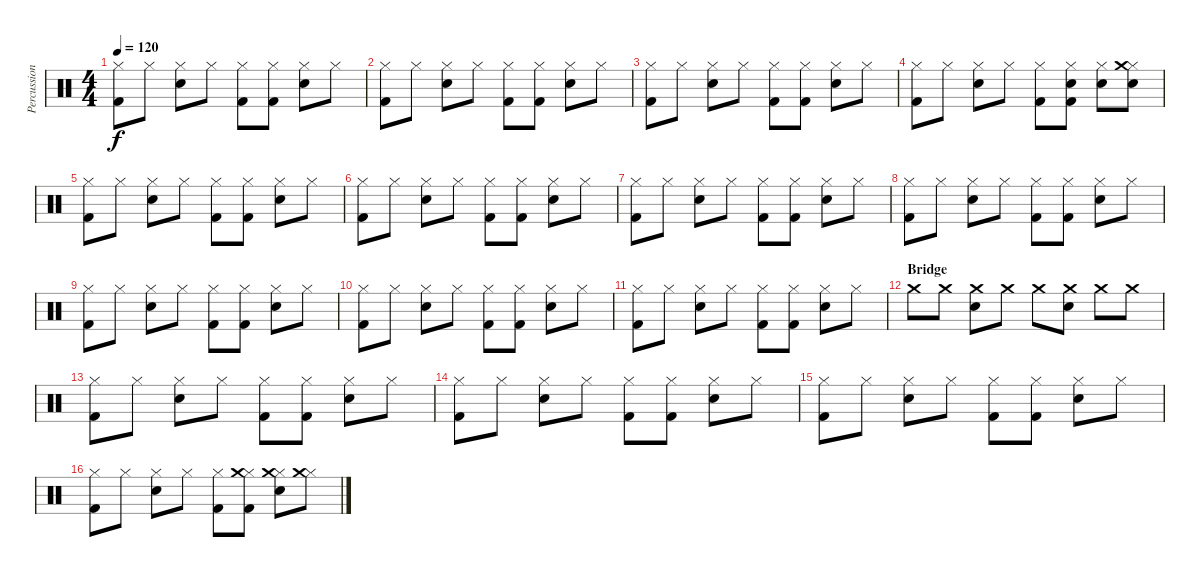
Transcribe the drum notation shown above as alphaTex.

\track ("Percussion" "Percussion") {instrument percussion}
\staff {score}
\articulation defaults
\ts (4 4)
\tempo 120
\clef neutral
\ks c
("Hi-Hat (closed)" "Kick (hit) 2").8{dy f} "Hi-Hat (closed)".8 ("Hi-Hat (closed)" "Snare (hit) 2").8 "Hi-Hat (closed)".8 ("Hi-Hat (closed)" "Kick (hit) 2").8 ("Hi-Hat (closed)" "Kick (hit) 2").8 ("Hi-Hat (closed)" "Snare (hit) 2").8 "Hi-Hat (closed)".8 |
("Hi-Hat (closed)" "Kick (hit) 2").8 "Hi-Hat (closed)".8 ("Hi-Hat (closed)" "Snare (hit) 2").8 "Hi-Hat (closed)".8 ("Hi-Hat (closed)" "Kick (hit) 2").8 ("Hi-Hat (closed)" "Kick (hit) 2").8 ("Hi-Hat (closed)" "Snare (hit) 2").8 "Hi-Hat (closed)".8 |
("Hi-Hat (closed)" "Kick (hit) 2").8 "Hi-Hat (closed)".8 ("Hi-Hat (closed)" "Snare (hit) 2").8 "Hi-Hat (closed)".8 ("Hi-Hat (closed)" "Kick (hit) 2").8 ("Hi-Hat (closed)" "Kick (hit) 2").8 ("Hi-Hat (closed)" "Snare (hit) 2").8 "Hi-Hat (closed)".8 |
("Hi-Hat (closed)" "Kick (hit) 2").8 "Hi-Hat (closed)".8 ("Hi-Hat (closed)" "Snare (hit) 2").8 "Hi-Hat (closed)".8 ("Hi-Hat (closed)" "Kick (hit) 2").8 ("Hi-Hat (closed)" "Kick (hit) 2" "Snare (hit) 2").8 ("Hi-Hat (closed)" "Snare (hit) 2").8 ("Hi-Hat (closed)" "Snare (hit) 2" "Crash medium (hit)").8 |
("Hi-Hat (closed)" "Kick (hit) 2").8 "Hi-Hat (closed)".8 ("Hi-Hat (closed)" "Snare (hit) 2").8 "Hi-Hat (closed)".8 ("Hi-Hat (closed)" "Kick (hit) 2").8 ("Hi-Hat (closed)" "Kick (hit) 2").8 ("Hi-Hat (closed)" "Snare (hit) 2").8 "Hi-Hat (closed)".8 |
("Hi-Hat (closed)" "Kick (hit) 2").8 "Hi-Hat (closed)".8 ("Hi-Hat (closed)" "Snare (hit) 2").8 "Hi-Hat (closed)".8 ("Hi-Hat (closed)" "Kick (hit) 2").8 ("Hi-Hat (closed)" "Kick (hit) 2").8 ("Hi-Hat (closed)" "Snare (hit) 2").8 "Hi-Hat (closed)".8 |
("Hi-Hat (closed)" "Kick (hit) 2").8 "Hi-Hat (closed)".8 ("Hi-Hat (closed)" "Snare (hit) 2").8 "Hi-Hat (closed)".8 ("Hi-Hat (closed)" "Kick (hit) 2").8 ("Hi-Hat (closed)" "Kick (hit) 2").8 ("Hi-Hat (closed)" "Snare (hit) 2").8 "Hi-Hat (closed)".8 |
("Hi-Hat (closed)" "Kick (hit) 2").8 "Hi-Hat (closed)".8 ("Hi-Hat (closed)" "Snare (hit) 2").8 "Hi-Hat (closed)".8 ("Hi-Hat (closed)" "Kick (hit) 2").8 ("Hi-Hat (closed)" "Kick (hit) 2").8 ("Hi-Hat (closed)" "Snare (hit) 2").8 "Hi-Hat (closed)".8 |
("Hi-Hat (closed)" "Kick (hit) 2").8 "Hi-Hat (closed)".8 ("Hi-Hat (closed)" "Snare (hit) 2").8 "Hi-Hat (closed)".8 ("Hi-Hat (closed)" "Kick (hit) 2").8 ("Hi-Hat (closed)" "Kick (hit) 2").8 ("Hi-Hat (closed)" "Snare (hit) 2").8 "Hi-Hat (closed)".8 |
("Hi-Hat (closed)" "Kick (hit) 2").8 "Hi-Hat (closed)".8 ("Hi-Hat (closed)" "Snare (hit) 2").8 "Hi-Hat (closed)".8 ("Hi-Hat (closed)" "Kick (hit) 2").8 ("Hi-Hat (closed)" "Kick (hit) 2").8 ("Hi-Hat (closed)" "Snare (hit) 2").8 "Hi-Hat (closed)".8 |
("Hi-Hat (closed)" "Kick (hit) 2").8 "Hi-Hat (closed)".8 ("Hi-Hat (closed)" "Snare (hit) 2").8 "Hi-Hat (closed)".8 ("Hi-Hat (closed)" "Kick (hit) 2").8 ("Hi-Hat (closed)" "Kick (hit) 2").8 ("Hi-Hat (closed)" "Snare (hit) 2").8 "Hi-Hat (closed)".8 |
\section ("" "Bridge")
"Crash medium (hit)".8 "Crash medium (hit)".8 ("Crash medium (hit)" "Snare (hit) 2").8 "Crash medium (hit)".8 "Crash medium (hit)".8 ("Crash medium (hit)" "Snare (hit) 2").8 "Crash medium (hit)".8 "Crash medium (hit)".8 |
("Hi-Hat (closed)" "Kick (hit) 2").8 "Hi-Hat (closed)".8 ("Hi-Hat (closed)" "Snare (hit) 2").8 "Hi-Hat (closed)".8 ("Hi-Hat (closed)" "Kick (hit) 2").8 ("Hi-Hat (closed)" "Kick (hit) 2").8 ("Hi-Hat (closed)" "Snare (hit) 2").8 "Hi-Hat (closed)".8 |
("Hi-Hat (closed)" "Kick (hit) 2").8 "Hi-Hat (closed)".8 ("Hi-Hat (closed)" "Snare (hit) 2").8 "Hi-Hat (closed)".8 ("Hi-Hat (closed)" "Kick (hit) 2").8 ("Hi-Hat (closed)" "Kick (hit) 2").8 ("Hi-Hat (closed)" "Snare (hit) 2").8 "Hi-Hat (closed)".8 |
("Hi-Hat (closed)" "Kick (hit) 2").8 "Hi-Hat (closed)".8 ("Hi-Hat (closed)" "Snare (hit) 2").8 "Hi-Hat (closed)".8 ("Hi-Hat (closed)" "Kick (hit) 2").8 ("Hi-Hat (closed)" "Kick (hit) 2").8 ("Hi-Hat (closed)" "Snare (hit) 2").8 "Hi-Hat (closed)".8 |
("Hi-Hat (closed)" "Kick (hit) 2").8 "Hi-Hat (closed)".8 ("Hi-Hat (closed)" "Snare (hit) 2").8 "Hi-Hat (closed)".8 ("Hi-Hat (closed)" "Kick (hit) 2").8 ("Hi-Hat (closed)" "Kick (hit) 2" "Crash medium (hit)").8 ("Hi-Hat (closed)" "Snare (hit) 2" "Crash medium (hit)").8 ("Hi-Hat (closed)" "Crash medium (hit)").8
